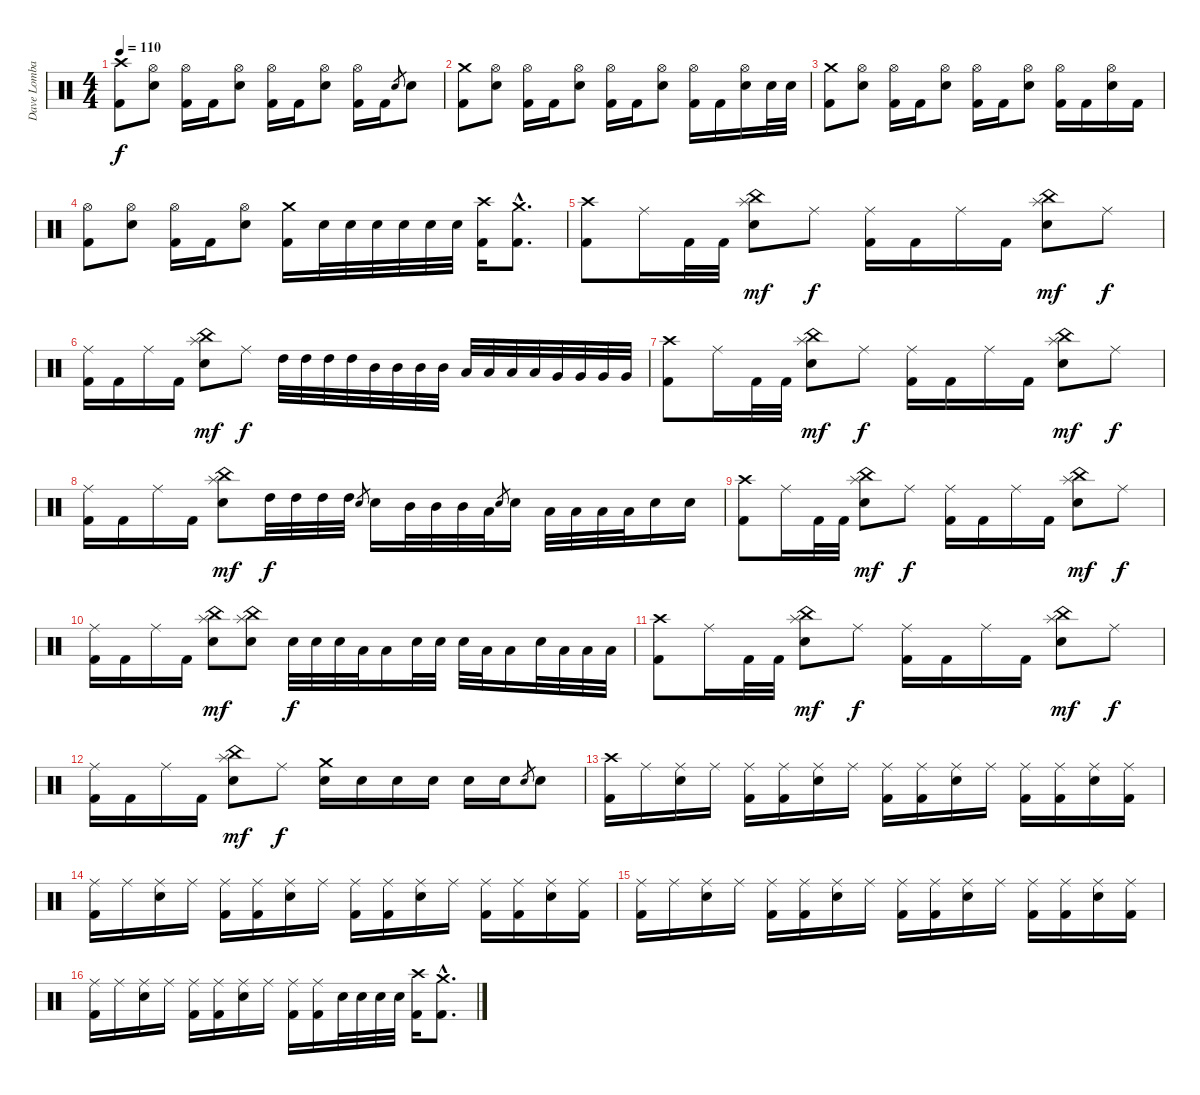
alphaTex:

\track ("Dave Lombardo" "Dave Lomba") {instrument percussion}
\staff {score}
\articulation defaults
\ts (4 4)
\tempo 110
\clef neutral
\ks c
("Crash high (hit)" "Kick (hit) 2").8{dy f} ("Electric Snare (hit)" "Hi-Hat (open)").8 ("Kick (hit) 2" "Hi-Hat (open)").16 "Kick (hit) 2".16 ("Electric Snare (hit)" "Hi-Hat (open)").8 ("Kick (hit) 2" "Hi-Hat (open)").16 "Kick (hit) 2".16 ("Electric Snare (hit)" "Hi-Hat (open)").8 ("Kick (hit) 2" "Hi-Hat (open)").16 "Kick (hit) 2".16 "Electric Snare (hit)".8{gr} "Electric Snare (hit)".8 |
("Crash medium (hit)" "Kick (hit) 2").8 ("Electric Snare (hit)" "Hi-Hat (open)").8 ("Kick (hit) 2" "Hi-Hat (open)").16 "Kick (hit) 2".16 ("Electric Snare (hit)" "Hi-Hat (open)").8 ("Kick (hit) 2" "Hi-Hat (open)").16 "Kick (hit) 2".16 ("Electric Snare (hit)" "Hi-Hat (open)").8 ("Kick (hit) 2" "Hi-Hat (open)").16 "Kick (hit) 2".16 ("Electric Snare (hit)" "Hi-Hat (open)").16 "Electric Snare (hit)".32 "Electric Snare (hit)".32 |
("Crash medium (hit)" "Kick (hit) 2").8 ("Electric Snare (hit)" "Hi-Hat (open)").8 ("Kick (hit) 2" "Hi-Hat (open)").16 "Kick (hit) 2".16 ("Electric Snare (hit)" "Hi-Hat (open)").8 ("Kick (hit) 2" "Hi-Hat (open)").16 "Kick (hit) 2".16 ("Electric Snare (hit)" "Hi-Hat (open)").8 ("Kick (hit) 2" "Hi-Hat (open)").16 "Kick (hit) 2".16 ("Electric Snare (hit)" "Hi-Hat (open)").16 "Kick (hit) 2".16 |
("Kick (hit) 2" "Hi-Hat (open)").8 ("Electric Snare (hit)" "Hi-Hat (open)").8 ("Kick (hit) 2" "Hi-Hat (open)").16 "Kick (hit) 2".16 ("Electric Snare (hit)" "Hi-Hat (open)").8 ("Kick (hit) 2" "Crash medium (hit)").16 "Electric Snare (hit)".32 "Electric Snare (hit)".32 "Electric Snare (hit)".32 "Electric Snare (hit)".32 "Electric Snare (hit)".32 "Electric Snare (hit)".32 ("Crash high (hit)" "Kick (hit) 2").16 ("Crash medium (hit)"{hac} "Kick (hit) 2"{hac}).8{d} |
("Crash high (hit)" "Kick (hit) 2").8 "Ride (middle)".16 "Kick (hit) 2".32 "Kick (hit) 2".32 ("China (hit)" "Splash (hit)" "Electric Snare (hit)").8{dy mf} "Ride (middle)".8{dy f} ("Kick (hit) 2" "Ride (middle)").16 "Kick (hit) 2".16 "Ride (middle)".16 "Kick (hit) 2".16 ("China (hit)" "Splash (hit)" "Electric Snare (hit)").8{dy mf} "Ride (middle)".8{dy f} |
("Kick (hit) 2" "Ride (middle)").16 "Kick (hit) 2".16 "Ride (middle)".16 "Kick (hit) 2".16 ("China (hit)" "Splash (hit)" "Electric Snare (hit)").8{dy mf} "Ride (middle)".8{dy f} "High Tom (hit)".32 "High Tom (hit)".32 "High Tom (hit)".32 "High Tom (hit)".32 "Mid Tom (hit)".32 "Mid Tom (hit)".32 "Mid Tom (hit)".32 "Mid Tom (hit)".32 "Low Tom (hit)".32 "Low Tom (hit)".32 "Low Tom (hit)".32 "Low Tom (hit)".32 "Very Low Tom (hit)".32 "Very Low Tom (hit)".32 "Very Low Tom (hit)".32 "Very Low Tom (hit)".32 |
("Crash high (hit)" "Kick (hit) 2").8 "Ride (middle)".16 "Kick (hit) 2".32 "Kick (hit) 2".32 ("China (hit)" "Splash (hit)" "Electric Snare (hit)").8{dy mf} "Ride (middle)".8{dy f} ("Kick (hit) 2" "Ride (middle)").16 "Kick (hit) 2".16 "Ride (middle)".16 "Kick (hit) 2".16 ("China (hit)" "Splash (hit)" "Electric Snare (hit)").8{dy mf} "Ride (middle)".8{dy f} |
("Kick (hit) 2" "Ride (middle)").16 "Kick (hit) 2".16 "Ride (middle)".16 "Kick (hit) 2".16 ("China (hit)" "Splash (hit)" "Electric Snare (hit)").8{dy mf} "High Tom (hit)".32{dy f} "High Tom (hit)".32 "High Tom (hit)".32 "High Tom (hit)".32 "Electric Snare (hit)".8{gr} "Electric Snare (hit)".16 "Mid Tom (hit)".32 "Mid Tom (hit)".32 "Mid Tom (hit)".32 "Low Tom (hit)".32 "Electric Snare (hit)".8{gr} "Electric Snare (hit)".16 "Low Tom (hit)".32 "Low Tom (hit)".32 "Low Tom (hit)".32 "Low Tom (hit)".32 "Electric Snare (hit)".16 "Electric Snare (hit)".16 |
("Crash high (hit)" "Kick (hit) 2").8 "Ride (middle)".16 "Kick (hit) 2".32 "Kick (hit) 2".32 ("China (hit)" "Splash (hit)" "Electric Snare (hit)").8{dy mf} "Ride (middle)".8{dy f} ("Kick (hit) 2" "Ride (middle)").16 "Kick (hit) 2".16 "Ride (middle)".16 "Kick (hit) 2".16 ("China (hit)" "Splash (hit)" "Electric Snare (hit)").8{dy mf} "Ride (middle)".8{dy f} |
("Kick (hit) 2" "Ride (middle)").16 "Kick (hit) 2".16 "Ride (middle)".16 "Kick (hit) 2".16 ("China (hit)" "Splash (hit)" "Electric Snare (hit)").8{dy mf} ("China (hit)" "Splash (hit)" "Electric Snare (hit)").8 "Electric Snare (hit)".32{dy f} "Electric Snare (hit)".32 "Electric Snare (hit)".32 "Low Tom (hit)".32 "Low Tom (hit)".16 "Electric Snare (hit)".32 "Electric Snare (hit)".32 "Electric Snare (hit)".32 "Low Tom (hit)".32 "Low Tom (hit)".16 "Electric Snare (hit)".32 "Low Tom (hit)".32 "Low Tom (hit)".32 "Low Tom (hit)".32 |
("Crash high (hit)" "Kick (hit) 2").8 "Ride (middle)".16 "Kick (hit) 2".32 "Kick (hit) 2".32 ("China (hit)" "Splash (hit)" "Electric Snare (hit)").8{dy mf} "Ride (middle)".8{dy f} ("Kick (hit) 2" "Ride (middle)").16 "Kick (hit) 2".16 "Ride (middle)".16 "Kick (hit) 2".16 ("China (hit)" "Splash (hit)" "Electric Snare (hit)").8{dy mf} "Ride (middle)".8{dy f} |
("Kick (hit) 2" "Ride (middle)").16 "Kick (hit) 2".16 "Ride (middle)".16 "Kick (hit) 2".16 ("China (hit)" "Splash (hit)" "Electric Snare (hit)").8{dy mf} "Ride (middle)".8{dy f} ("Crash medium (hit)" "Electric Snare (hit)").16 "Electric Snare (hit)".16 "Electric Snare (hit)".16 "Electric Snare (hit)".16 "Electric Snare (hit)".16 "Electric Snare (hit)".16 "Electric Snare (hit)".8{gr} "Electric Snare (hit)".8 |
("Crash high (hit)" "Kick (hit) 2").16 "Ride (middle)".16 ("Electric Snare (hit)" "Ride (middle)").16 "Ride (middle)".16 ("Kick (hit) 2" "Ride (middle)").16 ("Kick (hit) 2" "Ride (middle)").16 ("Electric Snare (hit)" "Ride (middle)").16 "Ride (middle)".16 ("Kick (hit) 2" "Ride (middle)").16 ("Kick (hit) 2" "Ride (middle)").16 ("Electric Snare (hit)" "Ride (middle)").16 "Ride (middle)".16 ("Kick (hit) 2" "Ride (middle)").16 ("Kick (hit) 2" "Ride (middle)").16 ("Electric Snare (hit)" "Ride (middle)").16 ("Kick (hit) 2" "Ride (middle)").16 |
("Kick (hit) 2" "Ride (middle)").16 "Ride (middle)".16 ("Electric Snare (hit)" "Ride (middle)").16 "Ride (middle)".16 ("Kick (hit) 2" "Ride (middle)").16 ("Kick (hit) 2" "Ride (middle)").16 ("Electric Snare (hit)" "Ride (middle)").16 "Ride (middle)".16 ("Kick (hit) 2" "Ride (middle)").16 ("Kick (hit) 2" "Ride (middle)").16 ("Electric Snare (hit)" "Ride (middle)").16 "Ride (middle)".16 ("Kick (hit) 2" "Ride (middle)").16 ("Kick (hit) 2" "Ride (middle)").16 ("Electric Snare (hit)" "Ride (middle)").16 ("Kick (hit) 2" "Ride (middle)").16 |
("Kick (hit) 2" "Ride (middle)").16 "Ride (middle)".16 ("Electric Snare (hit)" "Ride (middle)").16 "Ride (middle)".16 ("Kick (hit) 2" "Ride (middle)").16 ("Kick (hit) 2" "Ride (middle)").16 ("Electric Snare (hit)" "Ride (middle)").16 "Ride (middle)".16 ("Kick (hit) 2" "Ride (middle)").16 ("Kick (hit) 2" "Ride (middle)").16 ("Electric Snare (hit)" "Ride (middle)").16 "Ride (middle)".16 ("Kick (hit) 2" "Ride (middle)").16 ("Kick (hit) 2" "Ride (middle)").16 ("Electric Snare (hit)" "Ride (middle)").16 ("Kick (hit) 2" "Ride (middle)").16 |
("Kick (hit) 2" "Ride (middle)").16 "Ride (middle)".16 ("Electric Snare (hit)" "Ride (middle)").16 "Ride (middle)".16 ("Kick (hit) 2" "Ride (middle)").16 ("Kick (hit) 2" "Ride (middle)").16 ("Electric Snare (hit)" "Ride (middle)").16 "Ride (middle)".16 ("Kick (hit) 2" "Ride (middle)").16 ("Kick (hit) 2" "Ride (middle)").16 "Electric Snare (hit)".32 "Electric Snare (hit)".32 "Electric Snare (hit)".32 "Electric Snare (hit)".32 ("Kick (hit) 2" "Crash high (hit)").16 ("Kick (hit) 2"{hac} "Crash medium (hit)"{hac}).8{d}
